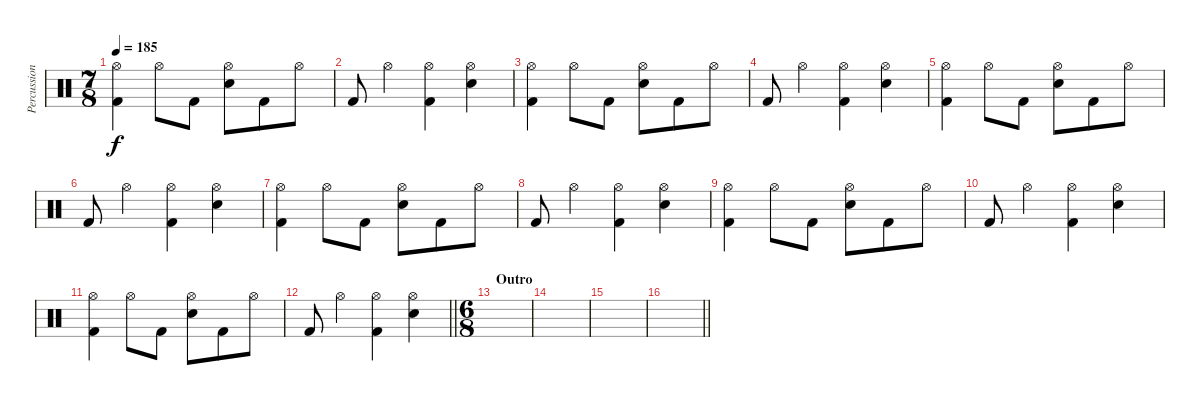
\track ("Percussion" "Percussion") {instrument percussion}
\staff {score}
\articulation defaults
\ts (7 8)
\tempo 185
\clef neutral
\ks c
("Hi-Hat (open)" "Kick (hit) 2").4{dy f} "Hi-Hat (open)".8 "Kick (hit) 2".8 ("Hi-Hat (open)" "Snare (hit) 2").8 "Kick (hit) 2".8 "Hi-Hat (open)".8 |
"Kick (hit) 2".8 "Hi-Hat (open)".4 ("Hi-Hat (open)" "Kick (hit) 2").4 ("Hi-Hat (open)" "Snare (hit) 2").4 |
("Hi-Hat (open)" "Kick (hit) 2").4 "Hi-Hat (open)".8 "Kick (hit) 2".8 ("Hi-Hat (open)" "Snare (hit) 2").8 "Kick (hit) 2".8 "Hi-Hat (open)".8 |
"Kick (hit) 2".8 "Hi-Hat (open)".4 ("Hi-Hat (open)" "Kick (hit) 2").4 ("Hi-Hat (open)" "Snare (hit) 2").4 |
("Hi-Hat (open)" "Kick (hit) 2").4 "Hi-Hat (open)".8 "Kick (hit) 2".8 ("Hi-Hat (open)" "Snare (hit) 2").8 "Kick (hit) 2".8 "Hi-Hat (open)".8 |
"Kick (hit) 2".8 "Hi-Hat (open)".4 ("Hi-Hat (open)" "Kick (hit) 2").4 ("Hi-Hat (open)" "Snare (hit) 2").4 |
("Hi-Hat (open)" "Kick (hit) 2").4 "Hi-Hat (open)".8 "Kick (hit) 2".8 ("Hi-Hat (open)" "Snare (hit) 2").8 "Kick (hit) 2".8 "Hi-Hat (open)".8 |
"Kick (hit) 2".8 "Hi-Hat (open)".4 ("Hi-Hat (open)" "Kick (hit) 2").4 ("Hi-Hat (open)" "Snare (hit) 2").4 |
("Hi-Hat (open)" "Kick (hit) 2").4 "Hi-Hat (open)".8 "Kick (hit) 2".8 ("Hi-Hat (open)" "Snare (hit) 2").8 "Kick (hit) 2".8 "Hi-Hat (open)".8 |
"Kick (hit) 2".8 "Hi-Hat (open)".4 ("Hi-Hat (open)" "Kick (hit) 2").4 ("Hi-Hat (open)" "Snare (hit) 2").4 |
("Hi-Hat (open)" "Kick (hit) 2").4 "Hi-Hat (open)".8 "Kick (hit) 2".8 ("Hi-Hat (open)" "Snare (hit) 2").8 "Kick (hit) 2".8 "Hi-Hat (open)".8 |
\barLineRight lightlight "Kick (hit) 2".8 "Hi-Hat (open)".4
("Hi-Hat (open)" "Kick (hit) 2").4 ("Hi-Hat (open)" "Snare (hit) 2").4 |
\ts (6 8)
\section ("" "Outro")
|
|
|
\barLineRight lightlight
